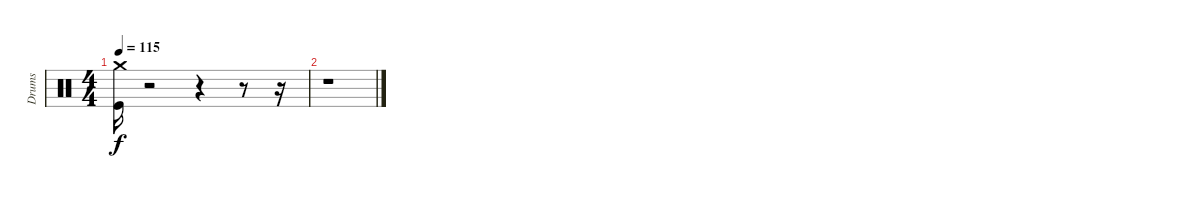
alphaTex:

\track ("Drums" "Drums") {instrument percussion}
\staff {score}
\articulation defaults
\ts (4 4)
\tempo 115
\clef neutral
\ks c
("Crash medium (hit)" "Kick (hit)").16{dy f} r.2 r.4 r.8 r.16 |
r.1
